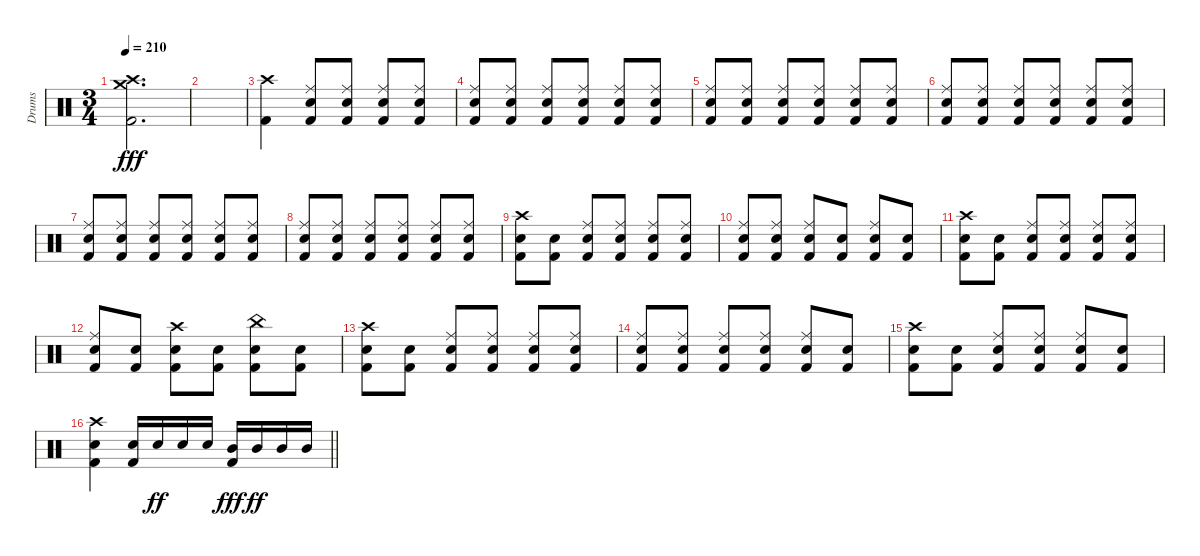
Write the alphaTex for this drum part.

\track ("Drums" "Drums") {instrument percussion}
\staff {score}
\articulation defaults
\ts (3 4)
\tempo 210
\clef neutral
\ks c
("Crash medium (hit)" "Crash high (hit)" "Kick (hit) 2").2{d dy fff} |
|
("Crash high (hit)" "Kick (hit) 2").4 ("Ride (middle)" "Snare (hit) 2" "Kick (hit) 2").8 ("Ride (middle)" "Snare (hit) 2" "Kick (hit) 2").8 ("Ride (middle)" "Snare (hit) 2" "Kick (hit) 2").8 ("Ride (middle)" "Snare (hit) 2" "Kick (hit) 2").8 |
("Ride (middle)" "Snare (hit) 2" "Kick (hit) 2").8 ("Ride (middle)" "Snare (hit) 2" "Kick (hit) 2").8 ("Ride (middle)" "Snare (hit) 2" "Kick (hit) 2").8 ("Ride (middle)" "Snare (hit) 2" "Kick (hit) 2").8 ("Ride (middle)" "Snare (hit) 2" "Kick (hit) 2").8 ("Ride (middle)" "Snare (hit) 2" "Kick (hit) 2").8 |
("Ride (middle)" "Snare (hit) 2" "Kick (hit) 2").8 ("Ride (middle)" "Snare (hit) 2" "Kick (hit) 2").8 ("Ride (middle)" "Snare (hit) 2" "Kick (hit) 2").8 ("Ride (middle)" "Snare (hit) 2" "Kick (hit) 2").8 ("Ride (middle)" "Snare (hit) 2" "Kick (hit) 2").8 ("Ride (middle)" "Snare (hit) 2" "Kick (hit) 2").8 |
("Ride (middle)" "Snare (hit) 2" "Kick (hit) 2").8 ("Ride (middle)" "Snare (hit) 2" "Kick (hit) 2").8 ("Ride (middle)" "Snare (hit) 2" "Kick (hit) 2").8 ("Ride (middle)" "Snare (hit) 2" "Kick (hit) 2").8 ("Ride (middle)" "Snare (hit) 2" "Kick (hit) 2").8 ("Ride (middle)" "Snare (hit) 2" "Kick (hit) 2").8 |
("Ride (middle)" "Snare (hit) 2" "Kick (hit) 2").8 ("Ride (middle)" "Snare (hit) 2" "Kick (hit) 2").8 ("Ride (middle)" "Snare (hit) 2" "Kick (hit) 2").8 ("Ride (middle)" "Snare (hit) 2" "Kick (hit) 2").8 ("Ride (middle)" "Snare (hit) 2" "Kick (hit) 2").8 ("Ride (middle)" "Snare (hit) 2" "Kick (hit) 2").8 |
("Ride (middle)" "Snare (hit) 2" "Kick (hit) 2").8 ("Ride (middle)" "Snare (hit) 2" "Kick (hit) 2").8 ("Ride (middle)" "Snare (hit) 2" "Kick (hit) 2").8 ("Ride (middle)" "Snare (hit) 2" "Kick (hit) 2").8 ("Ride (middle)" "Snare (hit) 2" "Kick (hit) 2").8 ("Ride (middle)" "Snare (hit) 2" "Kick (hit) 2").8 |
("Crash high (hit)" "Snare (hit) 2" "Kick (hit) 2").8 ("Snare (hit) 2" "Kick (hit) 2").8 ("Ride (middle)" "Snare (hit) 2" "Kick (hit) 2").8 ("Ride (middle)" "Snare (hit) 2" "Kick (hit) 2").8 ("Ride (middle)" "Snare (hit) 2" "Kick (hit) 2").8 ("Ride (middle)" "Snare (hit) 2" "Kick (hit) 2").8 |
("Ride (middle)" "Snare (hit) 2" "Kick (hit) 2").8 ("Ride (middle)" "Snare (hit) 2" "Kick (hit) 2").8 ("Ride (middle)" "Snare (hit) 2" "Kick (hit) 2").8 ("Snare (hit) 2" "Kick (hit) 2").8 ("Ride (middle)" "Snare (hit) 2" "Kick (hit) 2").8 ("Snare (hit) 2" "Kick (hit) 2").8 |
("Crash high (hit)" "Snare (hit) 2" "Kick (hit) 2").8 ("Snare (hit) 2" "Kick (hit) 2").8 ("Ride (middle)" "Snare (hit) 2" "Kick (hit) 2").8 ("Ride (middle)" "Snare (hit) 2" "Kick (hit) 2").8 ("Ride (middle)" "Snare (hit) 2" "Kick (hit) 2").8 ("Ride (middle)" "Snare (hit) 2" "Kick (hit) 2").8 |
("Ride (middle)" "Snare (hit) 2" "Kick (hit) 2").8 ("Snare (hit) 2" "Kick (hit) 2").8 ("Crash high (hit)" "Snare (hit) 2" "Kick (hit) 2").8 ("Snare (hit) 2" "Kick (hit) 2").8 ("China (hit)" "Snare (hit) 2" "Kick (hit) 2").8 ("Snare (hit) 2" "Kick (hit) 2").8 |
("Crash high (hit)" "Snare (hit) 2" "Kick (hit) 2").8 ("Snare (hit) 2" "Kick (hit) 2").8 ("Ride (middle)" "Snare (hit) 2" "Kick (hit) 2").8 ("Ride (middle)" "Snare (hit) 2" "Kick (hit) 2").8 ("Ride (middle)" "Snare (hit) 2" "Kick (hit) 2").8 ("Ride (middle)" "Snare (hit) 2" "Kick (hit) 2").8 |
("Ride (middle)" "Snare (hit) 2" "Kick (hit) 2").8 ("Ride (middle)" "Snare (hit) 2" "Kick (hit) 2").8 ("Ride (middle)" "Snare (hit) 2" "Kick (hit) 2").8 ("Ride (middle)" "Snare (hit) 2" "Kick (hit) 2").8 ("Ride (middle)" "Snare (hit) 2" "Kick (hit) 2").8 ("Snare (hit) 2" "Kick (hit) 2").8 |
("Crash high (hit)" "Snare (hit) 2" "Kick (hit) 2").8 ("Snare (hit) 2" "Kick (hit) 2").8 ("Ride (middle)" "Snare (hit) 2" "Kick (hit) 2").8 ("Ride (middle)" "Snare (hit) 2" "Kick (hit) 2").8 ("Ride (middle)" "Snare (hit) 2" "Kick (hit) 2").8 ("Snare (hit) 2" "Kick (hit) 2").8 |
\barLineRight lightlight
("Crash high (hit)" "Snare (hit) 2" "Kick (hit) 2").4 ("Snare (hit) 2" "Kick (hit) 2").16 "Snare (hit) 2".16{dy ff} "Snare (hit) 2".16 "Snare (hit) 2".16 ("Mid Tom (hit)" "Kick (hit) 2").16{dy fff} "Mid Tom (hit)".16{dy ff} "Mid Tom (hit)".16 "Mid Tom (hit)".16
